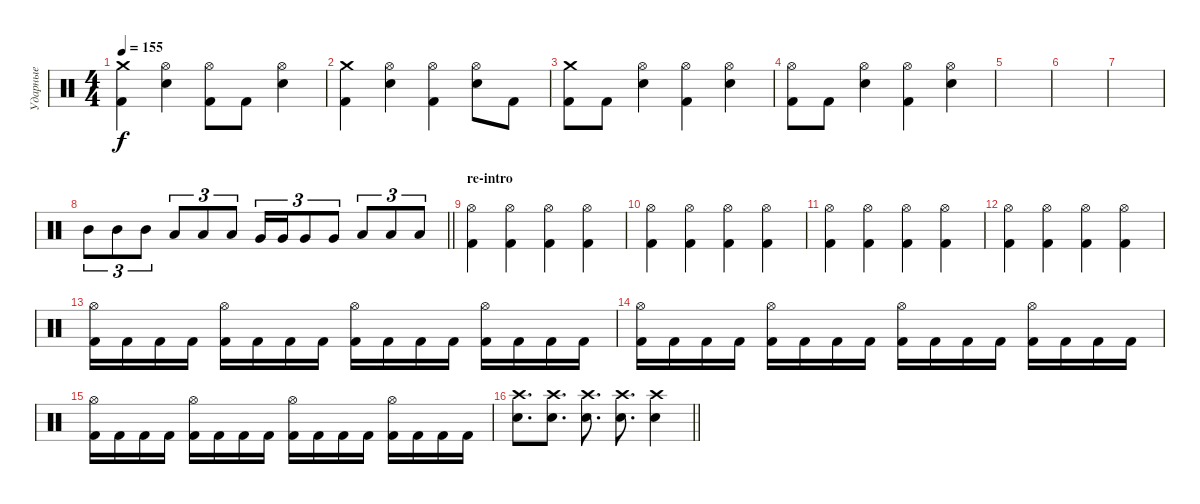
\track ("Ударные" "Ударные") {instrument percussion}
\staff {score}
\articulation defaults
\ts (4 4)
\tempo 155
\clef neutral
\ks c
("Crash medium (hit)" "Kick (hit) 2").4{dy f} ("Hi-Hat (open)" "Electric Snare (hit)").4 ("Hi-Hat (open)" "Kick (hit) 2").8 "Kick (hit) 2".8 ("Hi-Hat (open)" "Electric Snare (hit)").4 |
("Crash medium (hit)" "Kick (hit) 2").4 ("Hi-Hat (open)" "Electric Snare (hit)").4 ("Hi-Hat (open)" "Kick (hit) 2").4 ("Hi-Hat (open)" "Electric Snare (hit)").8 "Kick (hit) 2".8 |
("Crash medium (hit)" "Kick (hit) 2").8 "Kick (hit) 2".8 ("Hi-Hat (open)" "Electric Snare (hit)").4 ("Hi-Hat (open)" "Kick (hit) 2").4 ("Hi-Hat (open)" "Electric Snare (hit)").4 |
("Hi-Hat (open)" "Kick (hit) 2").8 "Kick (hit) 2".8 ("Hi-Hat (open)" "Electric Snare (hit)").4 ("Hi-Hat (open)" "Kick (hit) 2").4 ("Hi-Hat (open)" "Electric Snare (hit)").4 |
|
|
|
\barLineRight lightlight "Mid Tom (hit)".8{tu (3 2)} "Mid Tom (hit)".8{tu (3 2)} "Mid Tom (hit)".8{tu (3 2)} "Low Tom (hit)".8{tu (3 2)} "Low Tom (hit)".8{tu (3 2)} "Low Tom (hit)".8{tu (3 2)} "Very Low Tom (hit)".16{tu (3 2)} "Very Low Tom (hit)".16{tu (3 2)} "Very Low Tom (hit)".8{tu (3 2)} "Very Low Tom (hit)".8{tu (3 2)} "Low Floor Tom (hit)".8{tu (3 2)} "Low Floor Tom (hit)".8{tu (3 2)} "Low Floor Tom (hit)".8{tu (3 2)}
|
\section ("" "re-intro")
("Hi-Hat (open)" "Kick (hit) 2").4 ("Hi-Hat (open)" "Kick (hit) 2").4 ("Hi-Hat (open)" "Kick (hit) 2").4 ("Hi-Hat (open)" "Kick (hit) 2").4 |
("Hi-Hat (open)" "Kick (hit) 2").4 ("Hi-Hat (open)" "Kick (hit) 2").4 ("Hi-Hat (open)" "Kick (hit) 2").4 ("Hi-Hat (open)" "Kick (hit) 2").4 |
("Hi-Hat (open)" "Kick (hit) 2").4 ("Hi-Hat (open)" "Kick (hit) 2").4 ("Hi-Hat (open)" "Kick (hit) 2").4 ("Hi-Hat (open)" "Kick (hit) 2").4 |
("Hi-Hat (open)" "Kick (hit) 2").4 ("Hi-Hat (open)" "Kick (hit) 2").4 ("Hi-Hat (open)" "Kick (hit) 2").4 ("Hi-Hat (open)" "Kick (hit) 2").4 |
("Hi-Hat (open)" "Kick (hit) 2").16 "Kick (hit) 2".16 "Kick (hit) 2".16 "Kick (hit) 2".16 ("Hi-Hat (open)" "Kick (hit) 2").16 "Kick (hit) 2".16 "Kick (hit) 2".16 "Kick (hit) 2".16 ("Hi-Hat (open)" "Kick (hit) 2").16 "Kick (hit) 2".16 "Kick (hit) 2".16 "Kick (hit) 2".16 ("Hi-Hat (open)" "Kick (hit) 2").16 "Kick (hit) 2".16 "Kick (hit) 2".16 "Kick (hit) 2".16 |
("Hi-Hat (open)" "Kick (hit) 2").16 "Kick (hit) 2".16 "Kick (hit) 2".16 "Kick (hit) 2".16 ("Hi-Hat (open)" "Kick (hit) 2").16 "Kick (hit) 2".16 "Kick (hit) 2".16 "Kick (hit) 2".16 ("Hi-Hat (open)" "Kick (hit) 2").16 "Kick (hit) 2".16 "Kick (hit) 2".16 "Kick (hit) 2".16 ("Hi-Hat (open)" "Kick (hit) 2").16 "Kick (hit) 2".16 "Kick (hit) 2".16 "Kick (hit) 2".16 |
("Hi-Hat (open)" "Kick (hit) 2").16 "Kick (hit) 2".16 "Kick (hit) 2".16 "Kick (hit) 2".16 ("Hi-Hat (open)" "Kick (hit) 2").16 "Kick (hit) 2".16 "Kick (hit) 2".16 "Kick (hit) 2".16 ("Hi-Hat (open)" "Kick (hit) 2").16 "Kick (hit) 2".16 "Kick (hit) 2".16 "Kick (hit) 2".16 ("Hi-Hat (open)" "Kick (hit) 2").16 "Kick (hit) 2".16 "Kick (hit) 2".16 "Kick (hit) 2".16 |
\barLineRight lightlight
("Crash high (hit)" "Electric Snare (hit)").8{d} ("Crash high (hit)" "Electric Snare (hit)").8{d} ("Crash high (hit)" "Electric Snare (hit)").8{d} ("Crash high (hit)" "Electric Snare (hit)").8{d} ("Crash high (hit)" "Electric Snare (hit)").4
